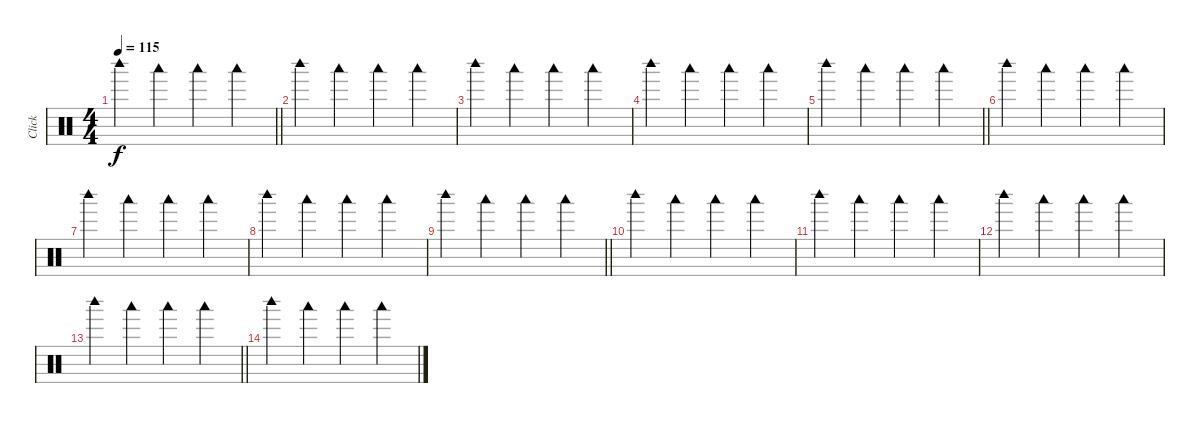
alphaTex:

\track ("Click" "Click") {mute instrument percussion}
\staff {score}
\articulation defaults
\ts (4 4)
\tempo 115
\clef neutral
\barLineRight lightlight
\ks c "Woodblock high (hit)".4{dy f} "Woodblock low (hit)".4 "Woodblock low (hit)".4 "Woodblock low (hit)".4
|
"Woodblock high (hit)".4 "Woodblock low (hit)".4 "Woodblock low (hit)".4 "Woodblock low (hit)".4 |
"Woodblock high (hit)".4 "Woodblock low (hit)".4 "Woodblock low (hit)".4 "Woodblock low (hit)".4 |
"Woodblock high (hit)".4 "Woodblock low (hit)".4 "Woodblock low (hit)".4 "Woodblock low (hit)".4 |
\barLineRight lightlight "Woodblock high (hit)".4 "Woodblock low (hit)".4 "Woodblock low (hit)".4 "Woodblock low (hit)".4
|
"Woodblock high (hit)".4 "Woodblock low (hit)".4 "Woodblock low (hit)".4 "Woodblock low (hit)".4 |
"Woodblock high (hit)".4 "Woodblock low (hit)".4 "Woodblock low (hit)".4 "Woodblock low (hit)".4 |
"Woodblock high (hit)".4 "Woodblock low (hit)".4 "Woodblock low (hit)".4 "Woodblock low (hit)".4 |
\barLineRight lightlight "Woodblock high (hit)".4 "Woodblock low (hit)".4 "Woodblock low (hit)".4 "Woodblock low (hit)".4
|
"Woodblock high (hit)".4 "Woodblock low (hit)".4 "Woodblock low (hit)".4 "Woodblock low (hit)".4 |
"Woodblock high (hit)".4 "Woodblock low (hit)".4 "Woodblock low (hit)".4 "Woodblock low (hit)".4 |
"Woodblock high (hit)".4 "Woodblock low (hit)".4 "Woodblock low (hit)".4 "Woodblock low (hit)".4 |
\barLineRight lightlight "Woodblock high (hit)".4 "Woodblock low (hit)".4 "Woodblock low (hit)".4 "Woodblock low (hit)".4
|
"Woodblock high (hit)".4 "Woodblock low (hit)".4 "Woodblock low (hit)".4 "Woodblock low (hit)".4
